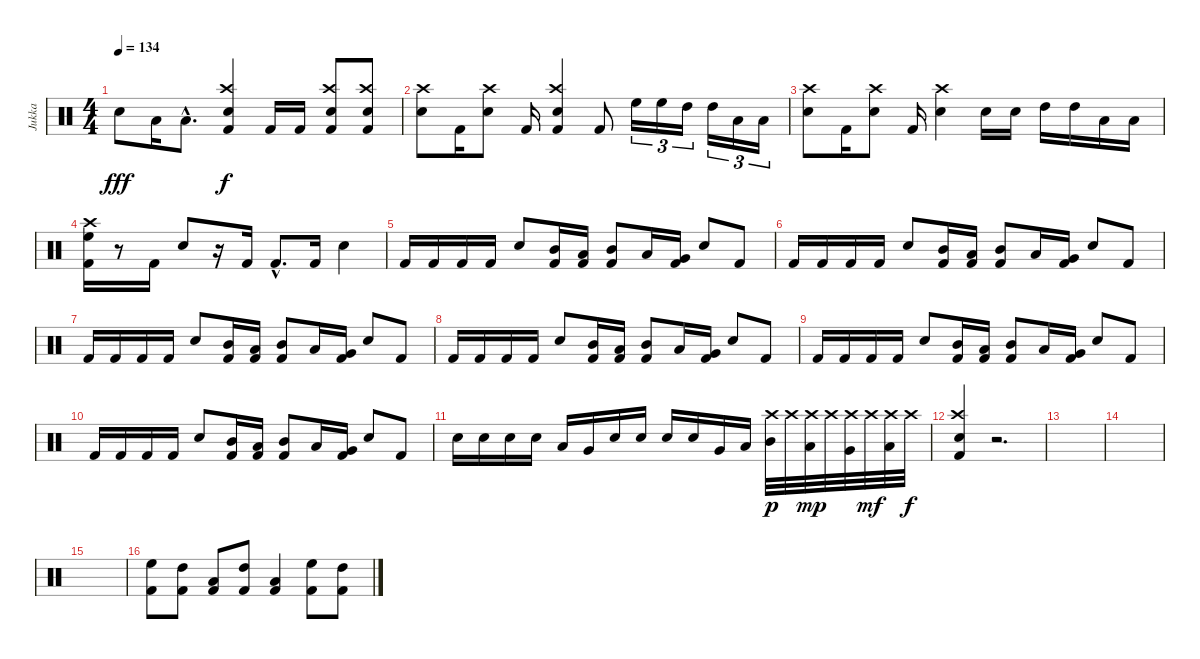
\track ("Jukka" "Jukka") {instrument percussion}
\staff {score}
\articulation defaults
\ts (4 4)
\tempo 134
\clef neutral
\ks c "Electric Snare (hit)".8{dy fff} "Low Tom (hit)".16 "Low Tom (hit)"{hac}.8{d}
("Crash high (hit)" "Electric Snare (hit)" "Kick (hit) 2").4{dy f} "Kick (hit) 2".16 "Kick (hit) 2".16 ("Crash high (hit)" "Electric Snare (hit)" "Kick (hit) 2").8 ("Crash high (hit)" "Electric Snare (hit)" "Kick (hit) 2").8 |
("Crash high (hit)" "Electric Snare (hit)").8 "Kick (hit) 2".16 ("Crash high (hit)" "Electric Snare (hit)").8 "Kick (hit) 2".16 ("Crash high (hit)" "Electric Snare (hit)" "Kick (hit) 2").4 "Kick (hit) 2".8 "High Floor Tom (hit)".16{tu (3 2)} "High Floor Tom (hit)".16{tu (3 2)} "High Tom (hit)".16{tu (3 2)} "High Tom (hit)".16{tu (3 2)} "Low Tom (hit)".16{tu (3 2)} "Low Tom (hit)".16{tu (3 2)} |
("Crash high (hit)" "Electric Snare (hit)").8 "Kick (hit) 2".16 ("Crash high (hit)" "Electric Snare (hit)").8 "Kick (hit) 2".16 ("Crash high (hit)" "Electric Snare (hit)").4 "Electric Snare (hit)".16 "Electric Snare (hit)".16 "High Tom (hit)".16 "High Tom (hit)".16 "Low Tom (hit)".16 "Low Tom (hit)".16 |
("Crash high (hit)" "High Floor Tom (hit)" "Kick (hit) 2").16 r.8 "Kick (hit) 2".16 "Electric Snare (hit)".8 r.16 "Kick (hit) 2".16 "Kick (hit) 2"{hac}.8{d} "Kick (hit) 2".16 "Electric Snare (hit)".4 |
"Kick (hit) 2".16 "Kick (hit) 2".16 "Kick (hit) 2".16 "Kick (hit) 2".16 "Electric Snare (hit)".8 ("Mid Tom (hit)" "Kick (hit) 2").16 ("Low Tom (hit)" "Kick (hit) 2").16 ("Mid Tom (hit)" "Kick (hit) 2").8 "Low Tom (hit)".16 ("Very Low Tom (hit)" "Kick (hit) 2").16 "Electric Snare (hit)".8 "Kick (hit) 2".8 |
"Kick (hit) 2".16 "Kick (hit) 2".16 "Kick (hit) 2".16 "Kick (hit) 2".16 "Electric Snare (hit)".8 ("Mid Tom (hit)" "Kick (hit) 2").16 ("Low Tom (hit)" "Kick (hit) 2").16 ("Mid Tom (hit)" "Kick (hit) 2").8 "Low Tom (hit)".16 ("Very Low Tom (hit)" "Kick (hit) 2").16 "Electric Snare (hit)".8 "Kick (hit) 2".8 |
"Kick (hit) 2".16 "Kick (hit) 2".16 "Kick (hit) 2".16 "Kick (hit) 2".16 "Electric Snare (hit)".8 ("Mid Tom (hit)" "Kick (hit) 2").16 ("Low Tom (hit)" "Kick (hit) 2").16 ("Mid Tom (hit)" "Kick (hit) 2").8 "Low Tom (hit)".16 ("Very Low Tom (hit)" "Kick (hit) 2").16 "Electric Snare (hit)".8 "Kick (hit) 2".8 |
"Kick (hit) 2".16 "Kick (hit) 2".16 "Kick (hit) 2".16 "Kick (hit) 2".16 "Electric Snare (hit)".8 ("Mid Tom (hit)" "Kick (hit) 2").16 ("Low Tom (hit)" "Kick (hit) 2").16 ("Mid Tom (hit)" "Kick (hit) 2").8 "Low Tom (hit)".16 ("Very Low Tom (hit)" "Kick (hit) 2").16 "Electric Snare (hit)".8 "Kick (hit) 2".8 |
"Kick (hit) 2".16 "Kick (hit) 2".16 "Kick (hit) 2".16 "Kick (hit) 2".16 "Electric Snare (hit)".8 ("Mid Tom (hit)" "Kick (hit) 2").16 ("Low Tom (hit)" "Kick (hit) 2").16 ("Mid Tom (hit)" "Kick (hit) 2").8 "Low Tom (hit)".16 ("Very Low Tom (hit)" "Kick (hit) 2").16 "Electric Snare (hit)".8 "Kick (hit) 2".8 |
"Kick (hit) 2".16 "Kick (hit) 2".16 "Kick (hit) 2".16 "Kick (hit) 2".16 "Electric Snare (hit)".8 ("Mid Tom (hit)" "Kick (hit) 2").16 ("Low Tom (hit)" "Kick (hit) 2").16 ("Mid Tom (hit)" "Kick (hit) 2").8 "Low Tom (hit)".16 ("Very Low Tom (hit)" "Kick (hit) 2").16 "Electric Snare (hit)".8 "Kick (hit) 2".8 |
"Electric Snare (hit)".16 "Electric Snare (hit)".16 "Electric Snare (hit)".16 "Electric Snare (hit)".16 "Low Tom (hit)".16 "Very Low Tom (hit)".16 "Electric Snare (hit)".16 "Electric Snare (hit)".16 "Electric Snare (hit)".16 "Electric Snare (hit)".16 "Very Low Tom (hit)".16 "Low Floor Tom (hit)".16 ("Crash high (hit)" "Mid Tom (hit)").32{dy p} "Crash high (hit)".32 ("Crash high (hit)" "Low Tom (hit)").32{dy mp} "Crash high (hit)".32 ("Crash high (hit)" "Very Low Tom (hit)").32 "Crash high (hit)".32{dy mf} ("Crash high (hit)" "Low Floor Tom (hit)").32 "Crash high (hit)".32{dy f} |
("Crash high (hit)" "Electric Snare (hit)" "Kick (hit) 2").4 r.2{d} |
|
|
|
("High Floor Tom (hit)" "Kick (hit) 2").8 ("High Tom (hit)" "Kick (hit) 2").8 ("Low Tom (hit)" "Kick (hit) 2").8 ("High Tom (hit)" "Kick (hit) 2").8 ("Low Tom (hit)" "Kick (hit) 2").4 ("High Floor Tom (hit)" "Kick (hit) 2").8 ("High Tom (hit)" "Kick (hit) 2").8
